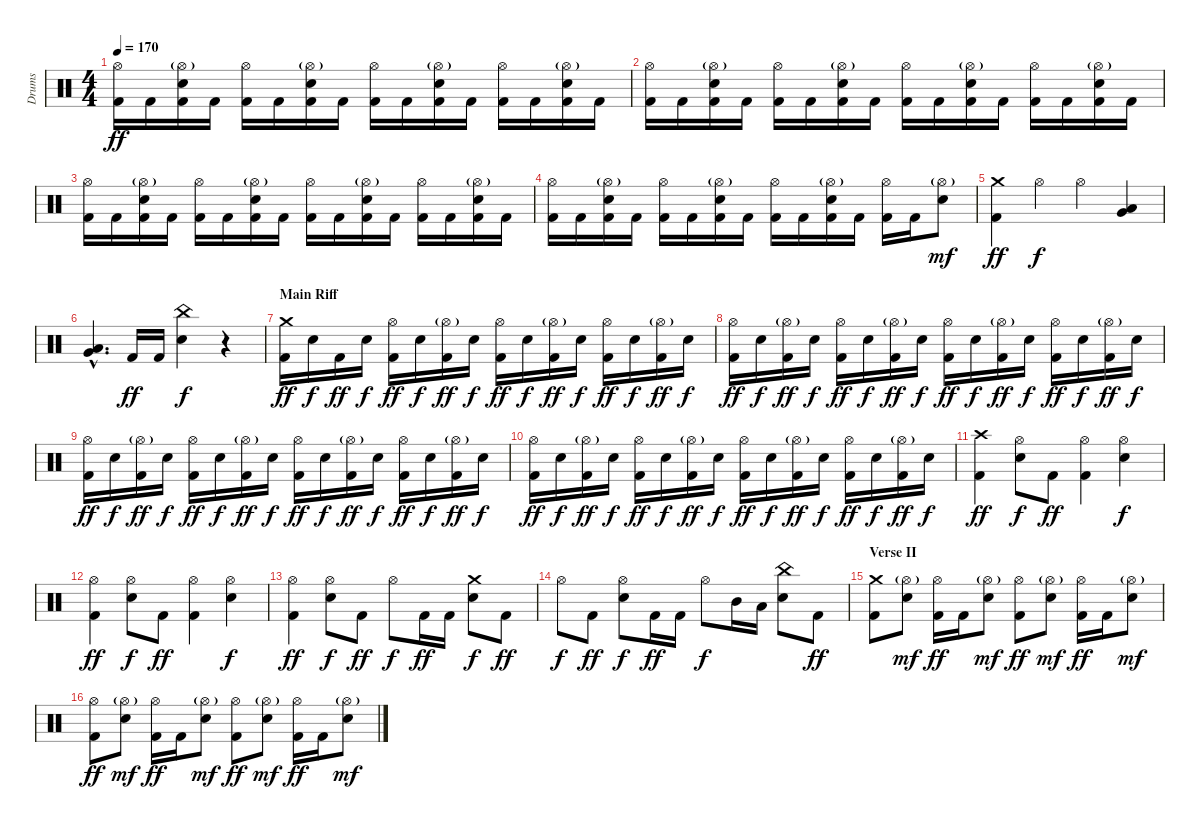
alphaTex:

\track ("Drums" "Drums") {instrument percussion}
\staff {score}
\articulation defaults
\ts (4 4)
\tempo 170
\clef neutral
\ks c
("Hi-Hat (open)" "Kick (hit) 2").16{dy ff} "Kick (hit) 2".16 ("Hi-Hat (open)"{g} "Electric Snare (hit)" "Kick (hit) 2").16 "Kick (hit) 2".16 ("Hi-Hat (open)" "Kick (hit) 2").16 "Kick (hit) 2".16 ("Hi-Hat (open)"{g} "Electric Snare (hit)" "Kick (hit) 2").16 "Kick (hit) 2".16 ("Hi-Hat (open)" "Kick (hit) 2").16 "Kick (hit) 2".16 ("Hi-Hat (open)"{g} "Electric Snare (hit)" "Kick (hit) 2").16 "Kick (hit) 2".16 ("Hi-Hat (open)" "Kick (hit) 2").16 "Kick (hit) 2".16 ("Hi-Hat (open)"{g} "Electric Snare (hit)" "Kick (hit) 2").16 "Kick (hit) 2".16 |
("Hi-Hat (open)" "Kick (hit) 2").16 "Kick (hit) 2".16 ("Hi-Hat (open)"{g} "Electric Snare (hit)" "Kick (hit) 2").16 "Kick (hit) 2".16 ("Hi-Hat (open)" "Kick (hit) 2").16 "Kick (hit) 2".16 ("Hi-Hat (open)"{g} "Electric Snare (hit)" "Kick (hit) 2").16 "Kick (hit) 2".16 ("Hi-Hat (open)" "Kick (hit) 2").16 "Kick (hit) 2".16 ("Hi-Hat (open)"{g} "Electric Snare (hit)" "Kick (hit) 2").16 "Kick (hit) 2".16 ("Hi-Hat (open)" "Kick (hit) 2").16 "Kick (hit) 2".16 ("Hi-Hat (open)"{g} "Electric Snare (hit)" "Kick (hit) 2").16 "Kick (hit) 2".16 |
("Hi-Hat (open)" "Kick (hit) 2").16 "Kick (hit) 2".16 ("Hi-Hat (open)"{g} "Electric Snare (hit)" "Kick (hit) 2").16 "Kick (hit) 2".16 ("Hi-Hat (open)" "Kick (hit) 2").16 "Kick (hit) 2".16 ("Hi-Hat (open)"{g} "Electric Snare (hit)" "Kick (hit) 2").16 "Kick (hit) 2".16 ("Hi-Hat (open)" "Kick (hit) 2").16 "Kick (hit) 2".16 ("Hi-Hat (open)"{g} "Electric Snare (hit)" "Kick (hit) 2").16 "Kick (hit) 2".16 ("Hi-Hat (open)" "Kick (hit) 2").16 "Kick (hit) 2".16 ("Hi-Hat (open)"{g} "Electric Snare (hit)" "Kick (hit) 2").16 "Kick (hit) 2".16 |
("Hi-Hat (open)" "Kick (hit) 2").16 "Kick (hit) 2".16 ("Hi-Hat (open)"{g} "Electric Snare (hit)" "Kick (hit) 2").16 "Kick (hit) 2".16 ("Hi-Hat (open)" "Kick (hit) 2").16 "Kick (hit) 2".16 ("Hi-Hat (open)"{g} "Electric Snare (hit)" "Kick (hit) 2").16 "Kick (hit) 2".16 ("Hi-Hat (open)" "Kick (hit) 2").16 "Kick (hit) 2".16 ("Hi-Hat (open)"{g} "Electric Snare (hit)" "Kick (hit) 2").16 "Kick (hit) 2".16 ("Hi-Hat (open)" "Kick (hit) 2").16 "Kick (hit) 2".16 ("Hi-Hat (open)"{g} "Electric Snare (hit)").8{dy mf} |
("Crash medium (hit)" "Kick (hit) 2").4{dy ff} "Hi-Hat (open)".4{dy f} "Hi-Hat (open)".4 ("Very Low Tom (hit)" "Low Floor Tom (hit)").4 |
("Very Low Tom (hit)"{hac} "Low Floor Tom (hit)"{hac}).4{d} "Kick (hit) 2".16{dy ff} "Kick (hit) 2".16 ("China (hit)" "Electric Snare (hit)").4{dy f} r.4 |
\section ("" "Main Riff")
("Crash medium (hit)" "Kick (hit) 2").16{dy ff} "Electric Snare (hit)".16{dy f} "Kick (hit) 2".16{dy ff} "Electric Snare (hit)".16{dy f} ("Hi-Hat (open)" "Kick (hit) 2").16{dy ff} "Electric Snare (hit)".16{dy f} ("Hi-Hat (open)"{g} "Kick (hit) 2").16{dy ff} "Electric Snare (hit)".16{dy f} ("Hi-Hat (open)" "Kick (hit) 2").16{dy ff} "Electric Snare (hit)".16{dy f} ("Hi-Hat (open)"{g} "Kick (hit) 2").16{dy ff} "Electric Snare (hit)".16{dy f} ("Hi-Hat (open)" "Kick (hit) 2").16{dy ff} "Electric Snare (hit)".16{dy f} ("Hi-Hat (open)"{g} "Kick (hit) 2").16{dy ff} "Electric Snare (hit)".16{dy f} |
("Hi-Hat (open)" "Kick (hit) 2").16{dy ff} "Electric Snare (hit)".16{dy f} ("Hi-Hat (open)"{g} "Kick (hit) 2").16{dy ff} "Electric Snare (hit)".16{dy f} ("Hi-Hat (open)" "Kick (hit) 2").16{dy ff} "Electric Snare (hit)".16{dy f} ("Hi-Hat (open)"{g} "Kick (hit) 2").16{dy ff} "Electric Snare (hit)".16{dy f} ("Hi-Hat (open)" "Kick (hit) 2").16{dy ff} "Electric Snare (hit)".16{dy f} ("Hi-Hat (open)"{g} "Kick (hit) 2").16{dy ff} "Electric Snare (hit)".16{dy f} ("Hi-Hat (open)" "Kick (hit) 2").16{dy ff} "Electric Snare (hit)".16{dy f} ("Hi-Hat (open)"{g} "Kick (hit) 2").16{dy ff} "Electric Snare (hit)".16{dy f} |
("Hi-Hat (open)" "Kick (hit) 2").16{dy ff} "Electric Snare (hit)".16{dy f} ("Hi-Hat (open)"{g} "Kick (hit) 2").16{dy ff} "Electric Snare (hit)".16{dy f} ("Hi-Hat (open)" "Kick (hit) 2").16{dy ff} "Electric Snare (hit)".16{dy f} ("Hi-Hat (open)"{g} "Kick (hit) 2").16{dy ff} "Electric Snare (hit)".16{dy f} ("Hi-Hat (open)" "Kick (hit) 2").16{dy ff} "Electric Snare (hit)".16{dy f} ("Hi-Hat (open)"{g} "Kick (hit) 2").16{dy ff} "Electric Snare (hit)".16{dy f} ("Hi-Hat (open)" "Kick (hit) 2").16{dy ff} "Electric Snare (hit)".16{dy f} ("Hi-Hat (open)"{g} "Kick (hit) 2").16{dy ff} "Electric Snare (hit)".16{dy f} |
("Hi-Hat (open)" "Kick (hit) 2").16{dy ff} "Electric Snare (hit)".16{dy f} ("Hi-Hat (open)"{g} "Kick (hit) 2").16{dy ff} "Electric Snare (hit)".16{dy f} ("Hi-Hat (open)" "Kick (hit) 2").16{dy ff} "Electric Snare (hit)".16{dy f} ("Hi-Hat (open)"{g} "Kick (hit) 2").16{dy ff} "Electric Snare (hit)".16{dy f} ("Hi-Hat (open)" "Kick (hit) 2").16{dy ff} "Electric Snare (hit)".16{dy f} ("Hi-Hat (open)"{g} "Kick (hit) 2").16{dy ff} "Electric Snare (hit)".16{dy f} ("Hi-Hat (open)" "Kick (hit) 2").16{dy ff} "Electric Snare (hit)".16{dy f} ("Hi-Hat (open)"{g} "Kick (hit) 2").16{dy ff} "Electric Snare (hit)".16{dy f} |
("Crash high (hit)" "Kick (hit) 2").4{dy ff} ("Hi-Hat (open)" "Electric Snare (hit)").8{dy f} "Kick (hit) 2".8{dy ff} ("Hi-Hat (open)" "Kick (hit) 2").4 ("Hi-Hat (open)" "Electric Snare (hit)").4{dy f} |
("Hi-Hat (open)" "Kick (hit) 2").4{dy ff} ("Hi-Hat (open)" "Electric Snare (hit)").8{dy f} "Kick (hit) 2".8{dy ff} ("Hi-Hat (open)" "Kick (hit) 2").4 ("Hi-Hat (open)" "Electric Snare (hit)").4{dy f} |
("Hi-Hat (open)" "Kick (hit) 2").4{dy ff} ("Hi-Hat (open)" "Electric Snare (hit)").8{dy f} "Kick (hit) 2".8{dy ff} "Hi-Hat (open)".8{dy f} "Kick (hit) 2".16{dy ff} "Kick (hit) 2".16 ("Crash medium (hit)" "Electric Snare (hit)").8{dy f} "Kick (hit) 2".8{dy ff} |
"Hi-Hat (open)".8{dy f} "Kick (hit) 2".8{dy ff} ("Hi-Hat (open)" "Electric Snare (hit)").8{dy f} "Kick (hit) 2".16{dy ff} "Kick (hit) 2".16 "Hi-Hat (open)".8{dy f} "Mid Tom (hit)".16 "Low Tom (hit)".16 ("China (hit)" "Electric Snare (hit)").8 "Kick (hit) 2".8{dy ff} |
\section ("" "Verse II")
("Crash medium (hit)" "Kick (hit) 2").8 ("Hi-Hat (open)"{g} "Electric Snare (hit)").8{dy mf} ("Hi-Hat (open)" "Kick (hit) 2").16{dy ff} "Kick (hit) 2".16 ("Hi-Hat (open)"{g} "Electric Snare (hit)").8{dy mf} ("Hi-Hat (open)" "Kick (hit) 2").8{dy ff} ("Hi-Hat (open)"{g} "Electric Snare (hit)").8{dy mf} ("Hi-Hat (open)" "Kick (hit) 2").16{dy ff} "Kick (hit) 2".16 ("Hi-Hat (open)"{g} "Electric Snare (hit)").8{dy mf} |
("Hi-Hat (open)" "Kick (hit) 2").8{dy ff} ("Hi-Hat (open)"{g} "Electric Snare (hit)").8{dy mf} ("Hi-Hat (open)" "Kick (hit) 2").16{dy ff} "Kick (hit) 2".16 ("Hi-Hat (open)"{g} "Electric Snare (hit)").8{dy mf} ("Hi-Hat (open)" "Kick (hit) 2").8{dy ff} ("Hi-Hat (open)"{g} "Electric Snare (hit)").8{dy mf} ("Hi-Hat (open)" "Kick (hit) 2").16{dy ff} "Kick (hit) 2".16 ("Hi-Hat (open)"{g} "Electric Snare (hit)").8{dy mf}
